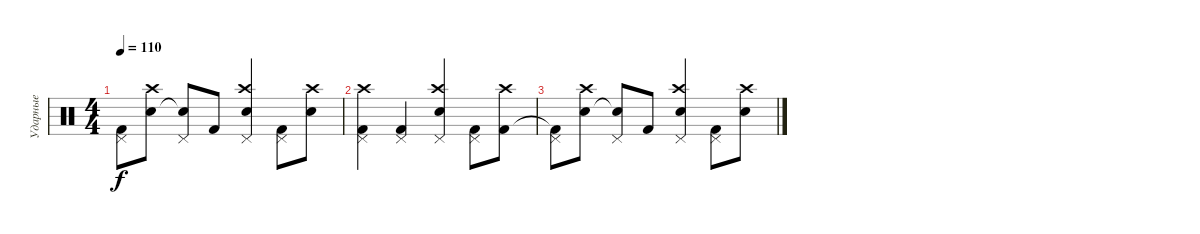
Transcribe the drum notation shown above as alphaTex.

\track ("Ударные" "Ударные") {instrument percussion}
\staff {score}
\articulation defaults
\ts (4 4)
\tempo 110
\clef neutral
\ks c
("Pedal Hi-Hat (hit)" "Kick (hit) 2"{t}).8{dy f} ("Crash high (hit)" "Snare (hit) 2").8 ("Pedal Hi-Hat (hit)" "Snare (hit) 2"{t}).8 "Kick (hit) 2".8 ("Crash high (hit)" "Pedal Hi-Hat (hit)" "Electric Snare (hit)").4 ("Pedal Hi-Hat (hit)" "Kick (hit) 2").8 ("Crash high (hit)" "Snare (hit) 2").8 |
("Crash high (hit)" "Pedal Hi-Hat (hit)" "Kick (hit) 2").4 ("Pedal Hi-Hat (hit)" "Kick (hit) 2").4 ("Crash high (hit)" "Pedal Hi-Hat (hit)" "Electric Snare (hit)").4 ("Pedal Hi-Hat (hit)" "Kick (hit) 2").8 ("Crash high (hit)" "Kick (hit) 2").8 |
("Pedal Hi-Hat (hit)" "Kick (hit) 2"{t}).8 ("Crash high (hit)" "Snare (hit) 2").8 ("Pedal Hi-Hat (hit)" "Snare (hit) 2"{t}).8 "Kick (hit) 2".8 ("Crash high (hit)" "Pedal Hi-Hat (hit)" "Electric Snare (hit)").4 ("Pedal Hi-Hat (hit)" "Kick (hit) 2").8 ("Crash high (hit)" "Snare (hit) 2").8
